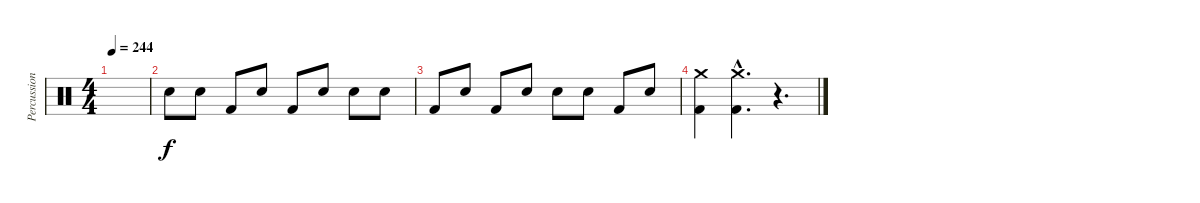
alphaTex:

\track ("Percussions" "Percussion") {instrument percussion}
\staff {score}
\articulation defaults
\ts (4 4)
\tempo 244
\clef neutral
\ks c
|
"Electric Snare (hit)".8 "Electric Snare (hit)".8 "Kick (hit) 2".8 "Electric Snare (hit)".8 "Kick (hit) 2".8 "Electric Snare (hit)".8 "Electric Snare (hit)".8 "Electric Snare (hit)".8 |
"Kick (hit) 2".8 "Electric Snare (hit)".8 "Kick (hit) 2".8 "Electric Snare (hit)".8 "Electric Snare (hit)".8 "Electric Snare (hit)".8 "Kick (hit) 2".8 "Electric Snare (hit)".8 |
("Crash medium (hit)" "Kick (hit) 2").4 ("Crash medium (hit)"{hac} "Kick (hit) 2"{hac}).4{d} r.4{d}
